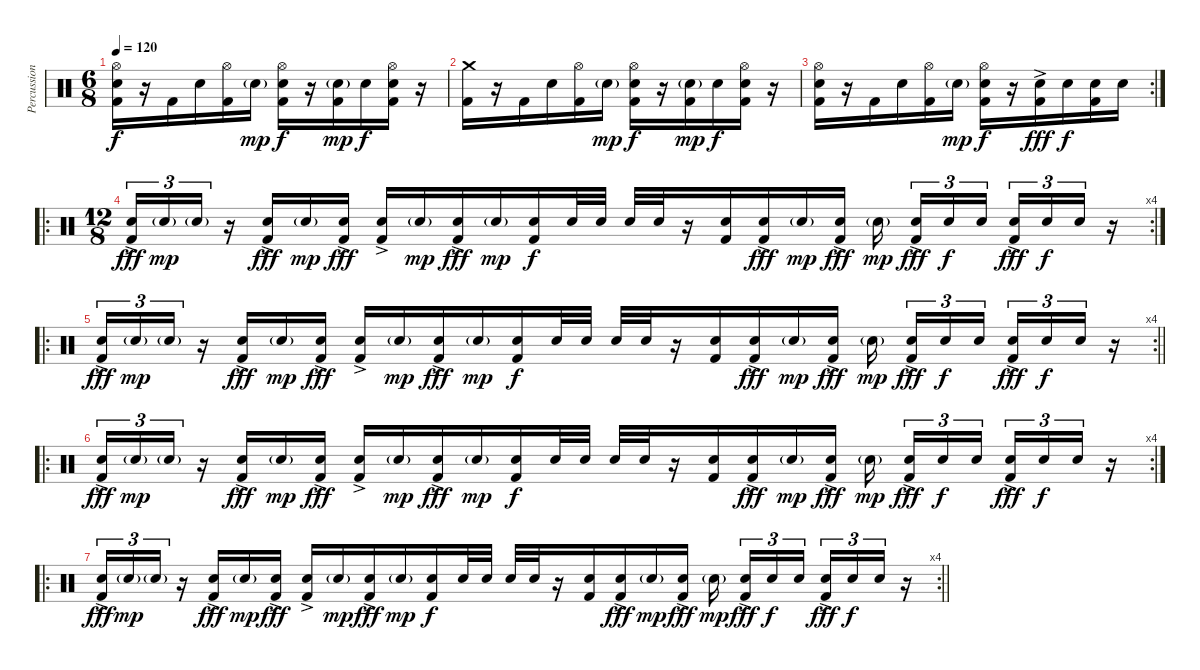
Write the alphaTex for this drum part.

\track ("Percussion" "Percussion") {instrument percussion}
\staff {score}
\articulation defaults
\ts (6 8)
\tempo 120
\clef neutral
\ks c
("Hi-Hat (open)" "Snare (hit) 2" "Kick (hit) 2").16{dy f} r.16 "Kick (hit) 2".16 "Snare (hit) 2".16 ("Hi-Hat (open)" "Kick (hit) 2").16 "Snare (hit) 2"{g}.16{dy mp} ("Hi-Hat (open)" "Snare (hit) 2" "Kick (hit) 2").16{dy f} r.16 ("Snare (hit) 2"{g} "Kick (hit) 2").16{dy mp} "Snare (hit) 2".16{dy f} ("Hi-Hat (open)" "Snare (hit) 2" "Kick (hit) 2").16 r.16 |
("Crash medium (hit)" "Kick (hit) 2").16 r.16 "Kick (hit) 2".16 "Snare (hit) 2".16 ("Hi-Hat (open)" "Kick (hit) 2").16 "Snare (hit) 2"{g}.16{dy mp} ("Hi-Hat (open)" "Snare (hit) 2" "Kick (hit) 2").16{dy f} r.16 ("Snare (hit) 2"{g} "Kick (hit) 2").16{dy mp} "Snare (hit) 2".16{dy f} ("Hi-Hat (open)" "Snare (hit) 2" "Kick (hit) 2").16 r.16 |
\rc 2
("Hi-Hat (open)" "Snare (hit) 2" "Kick (hit) 2").16 r.16 "Kick (hit) 2".16 "Snare (hit) 2".16 ("Hi-Hat (open)" "Kick (hit) 2").16 "Snare (hit) 2"{g}.16{dy mp} ("Hi-Hat (open)" "Snare (hit) 2" "Kick (hit) 2").16{dy f} r.16 ("Snare (hit) 2"{ac} "Kick (hit) 2").16{dy fff} "Snare (hit) 2".16{dy f} ("Snare (hit) 2" "Kick (hit) 2").16 "Snare (hit) 2".16 |
\ro
\rc 4
\ts (12 8)
("Snare (hit) 2"{ac} "Kick (hit) 2").16{tu (3 2) dy fff} "Snare (hit) 2"{g}.16{tu (3 2) dy mp} "Snare (hit) 2"{g}.16{tu (3 2)} r.16 ("Snare (hit) 2"{ac} "Kick (hit) 2").16{dy fff} "Snare (hit) 2"{g}.16{dy mp} ("Snare (hit) 2"{ac} "Kick (hit) 2").16{dy fff} ("Snare (hit) 2"{ac} "Kick (hit) 2").16 "Snare (hit) 2"{g}.16{dy mp} ("Snare (hit) 2"{ac} "Kick (hit) 2").16{dy fff} "Snare (hit) 2"{g}.16{dy mp} ("Snare (hit) 2" "Kick (hit) 2").16{dy f} "Snare (hit) 2".32 "Snare (hit) 2".32 "Snare (hit) 2".32 "Snare (hit) 2".32 r.16 ("Snare (hit) 2" "Kick (hit) 2").16 ("Snare (hit) 2"{ac} "Kick (hit) 2").16{dy fff} "Snare (hit) 2"{g}.16{dy mp} ("Snare (hit) 2"{ac} "Kick (hit) 2").16{dy fff} "Snare (hit) 2"{g}.16{dy mp} ("Snare (hit) 2"{ac} "Kick (hit) 2").16{tu (3 2) dy fff} "Snare (hit) 2".16{tu (3 2) dy f} "Snare (hit) 2".16{tu (3 2)} ("Snare (hit) 2"{ac} "Kick (hit) 2").16{tu (3 2) dy fff} "Snare (hit) 2".16{tu (3 2) dy f} "Snare (hit) 2".16{tu (3 2)} r.16 |
\ro
\rc 4
\barLineRight lightlight
("Snare (hit) 2"{ac} "Kick (hit) 2").16{tu (3 2) dy fff} "Snare (hit) 2"{g}.16{tu (3 2) dy mp} "Snare (hit) 2"{g}.16{tu (3 2)} r.16 ("Snare (hit) 2"{ac} "Kick (hit) 2").16{dy fff} "Snare (hit) 2"{g}.16{dy mp} ("Snare (hit) 2"{ac} "Kick (hit) 2").16{dy fff} ("Snare (hit) 2"{ac} "Kick (hit) 2").16 "Snare (hit) 2"{g}.16{dy mp} ("Snare (hit) 2"{ac} "Kick (hit) 2").16{dy fff} "Snare (hit) 2"{g}.16{dy mp} ("Snare (hit) 2" "Kick (hit) 2").16{dy f} "Snare (hit) 2".32 "Snare (hit) 2".32 "Snare (hit) 2".32 "Snare (hit) 2".32 r.16 ("Snare (hit) 2" "Kick (hit) 2").16 ("Snare (hit) 2"{ac} "Kick (hit) 2").16{dy fff} "Snare (hit) 2"{g}.16{dy mp} ("Snare (hit) 2"{ac} "Kick (hit) 2").16{dy fff} "Snare (hit) 2"{g}.16{dy mp} ("Snare (hit) 2"{ac} "Kick (hit) 2").16{tu (3 2) dy fff} "Snare (hit) 2".16{tu (3 2) dy f} "Snare (hit) 2".16{tu (3 2)} ("Snare (hit) 2"{ac} "Kick (hit) 2").16{tu (3 2) dy fff} "Snare (hit) 2".16{tu (3 2) dy f} "Snare (hit) 2".16{tu (3 2)} r.16 |
\ro
\rc 4
("Snare (hit) 2"{ac} "Kick (hit) 2").16{tu (3 2) dy fff} "Snare (hit) 2"{g}.16{tu (3 2) dy mp} "Snare (hit) 2"{g}.16{tu (3 2)} r.16 ("Snare (hit) 2"{ac} "Kick (hit) 2").16{dy fff} "Snare (hit) 2"{g}.16{dy mp} ("Snare (hit) 2"{ac} "Kick (hit) 2").16{dy fff} ("Snare (hit) 2"{ac} "Kick (hit) 2").16 "Snare (hit) 2"{g}.16{dy mp} ("Snare (hit) 2"{ac} "Kick (hit) 2").16{dy fff} "Snare (hit) 2"{g}.16{dy mp} ("Snare (hit) 2" "Kick (hit) 2").16{dy f} "Snare (hit) 2".32 "Snare (hit) 2".32 "Snare (hit) 2".32 "Snare (hit) 2".32 r.16 ("Snare (hit) 2" "Kick (hit) 2").16 ("Snare (hit) 2"{ac} "Kick (hit) 2").16{dy fff} "Snare (hit) 2"{g}.16{dy mp} ("Snare (hit) 2"{ac} "Kick (hit) 2").16{dy fff} "Snare (hit) 2"{g}.16{dy mp} ("Snare (hit) 2"{ac} "Kick (hit) 2").16{tu (3 2) dy fff} "Snare (hit) 2".16{tu (3 2) dy f} "Snare (hit) 2".16{tu (3 2)} ("Snare (hit) 2"{ac} "Kick (hit) 2").16{tu (3 2) dy fff} "Snare (hit) 2".16{tu (3 2) dy f} "Snare (hit) 2".16{tu (3 2)} r.16 |
\ro
\rc 4
\barLineRight lightlight
("Snare (hit) 2"{ac} "Kick (hit) 2").16{tu (3 2) dy fff} "Snare (hit) 2"{g}.16{tu (3 2) dy mp} "Snare (hit) 2"{g}.16{tu (3 2)} r.16 ("Snare (hit) 2"{ac} "Kick (hit) 2").16{dy fff} "Snare (hit) 2"{g}.16{dy mp} ("Snare (hit) 2"{ac} "Kick (hit) 2").16{dy fff} ("Snare (hit) 2"{ac} "Kick (hit) 2").16 "Snare (hit) 2"{g}.16{dy mp} ("Snare (hit) 2"{ac} "Kick (hit) 2").16{dy fff} "Snare (hit) 2"{g}.16{dy mp} ("Snare (hit) 2" "Kick (hit) 2").16{dy f} "Snare (hit) 2".32 "Snare (hit) 2".32 "Snare (hit) 2".32 "Snare (hit) 2".32 r.16 ("Snare (hit) 2" "Kick (hit) 2").16 ("Snare (hit) 2"{ac} "Kick (hit) 2").16{dy fff} "Snare (hit) 2"{g}.16{dy mp} ("Snare (hit) 2"{ac} "Kick (hit) 2").16{dy fff} "Snare (hit) 2"{g}.16{dy mp} ("Snare (hit) 2"{ac} "Kick (hit) 2").16{tu (3 2) dy fff} "Snare (hit) 2".16{tu (3 2) dy f} "Snare (hit) 2".16{tu (3 2)} ("Snare (hit) 2"{ac} "Kick (hit) 2").16{tu (3 2) dy fff} "Snare (hit) 2".16{tu (3 2) dy f} "Snare (hit) 2".16{tu (3 2)} r.16
